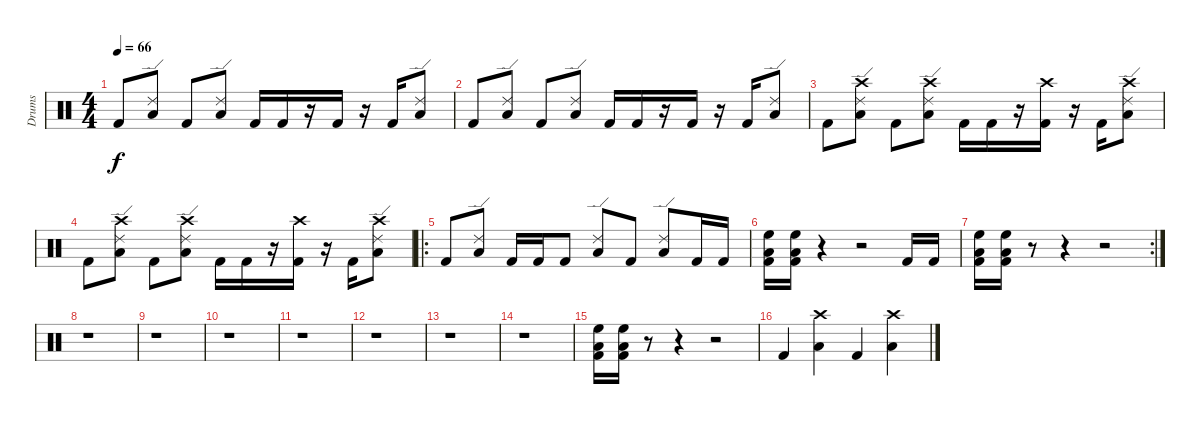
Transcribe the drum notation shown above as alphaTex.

\track ("Drums" "Drums") {instrument percussion}
\staff {score}
\articulation defaults
\ts (4 4)
\tempo 66
\clef neutral
\ks c "Kick (hit) 2".8{dy f}
("Ride (edge) 2" "Low Tom (hit)").8 "Kick (hit) 2".8 ("Ride (edge) 2" "Low Tom (hit)").8 "Kick (hit) 2".16 "Kick (hit) 2".16 r.16 "Kick (hit) 2".16 r.16 "Kick (hit) 2".16 ("Ride (edge) 2" "Low Tom (hit)").8 |
"Kick (hit) 2".8 ("Ride (edge) 2" "Low Tom (hit)").8 "Kick (hit) 2".8 ("Ride (edge) 2" "Low Tom (hit)").8 "Kick (hit) 2".16 "Kick (hit) 2".16 r.16 "Kick (hit) 2".16 r.16 "Kick (hit) 2".16 ("Ride (edge) 2" "Low Tom (hit)").8 |
"Kick (hit) 2".8 ("Crash high (hit)" "Ride (edge) 2" "Low Tom (hit)").8 "Kick (hit) 2".8 ("Crash high (hit)" "Ride (edge) 2" "Low Tom (hit)").8 "Kick (hit) 2".16 "Kick (hit) 2".16 r.16 ("Crash high (hit)" "Kick (hit) 2").16 r.16 "Kick (hit) 2".16 ("Crash high (hit)" "Ride (edge) 2" "Low Tom (hit)").8 |
"Kick (hit) 2".8 ("Crash high (hit)" "Ride (edge) 2" "Low Tom (hit)").8 "Kick (hit) 2".8 ("Crash high (hit)" "Ride (edge) 2" "Low Tom (hit)").8 "Kick (hit) 2".16 "Kick (hit) 2".16 r.16 ("Crash high (hit)" "Kick (hit) 2").16 r.16 "Kick (hit) 2".16 ("Crash high (hit)" "Ride (edge) 2" "Low Tom (hit)").8 |
\ro "Kick (hit) 2".8
("Ride (edge) 2" "Low Tom (hit)").8 "Kick (hit) 2".16 "Kick (hit) 2".16 "Kick (hit) 2".8 ("Ride (edge) 2" "Low Tom (hit)").8 "Kick (hit) 2".8 ("Ride (edge) 2" "Low Tom (hit)").8 "Kick (hit) 2".16 "Kick (hit) 2".16 |
("High Floor Tom (hit)" "Low Tom (hit)" "Kick (hit) 2").16 ("High Floor Tom (hit)" "Low Tom (hit)" "Kick (hit) 2").16 r.4 r.2 "Kick (hit) 2".16 "Kick (hit) 2".16 |
\rc 2
("High Floor Tom (hit)" "Low Tom (hit)" "Kick (hit) 2").16 ("High Floor Tom (hit)" "Low Tom (hit)" "Kick (hit) 2").16 r.8 r.4 r.2 |
r.1 |
r.1 |
r.1 |
r.1 |
r.1 |
r.1 |
r.1 |
("High Floor Tom (hit)" "Low Tom (hit)" "Kick (hit) 2").16 ("High Floor Tom (hit)" "Low Tom (hit)" "Kick (hit) 2").16 r.8 r.4 r.2 |
"Kick (hit) 2".4 ("Crash high (hit)" "Low Tom (hit)").4 "Kick (hit) 2".4 ("Crash high (hit)" "Low Tom (hit)").4
